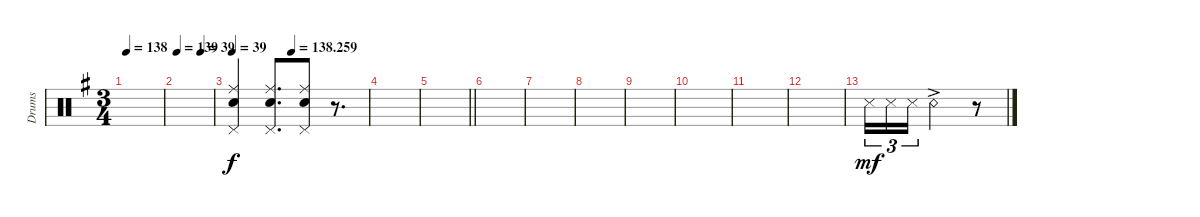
\defaultSystemsLayout 4
\bracketExtendMode groupsimilarinstruments
\otherSystemsTrackNameOrientation horizontal
\track ("Drumkit" "Drums") {instrument percussion}
\staff {score}
\articulation defaults
\ts (3 4)
\scale
0.122758
\tempo 138
\accidentals auto
\clef neutral
\ottava regular
\simile none
\ks eminor
|
\scale
0.668323
\tempo 139
\tempo (39 0.6625)
|
\beaming (8 2 4)
\scale
0.386035
\tempo 39
\tempo (138.259 0.4375)
("Pedal Hi-Hat (hit)"{acc forcenatural} "Ride (middle)"{acc forcenatural} "Snare (hit) 2"{acc forcenatural}).4{beam Up} ("Pedal Hi-Hat (hit)"{acc forcenatural} "Ride (middle)"{acc forcenatural} "Snare (hit) 2"{acc forcenatural}).8{d beam Up} ("Pedal Hi-Hat (hit)"{acc forcenatural} "Ride (middle)"{acc forcenatural} "Snare (hit) 2"{acc forcenatural}).8{beam Up} r.8{d beam Up} |
\scale
0.109489 |
\scale
0.099686
\barLineRight lightlight
|
\scale
0.286455 |
\scale
0.199693 |
\scale
0.106146 |
\scale
0.262806 |
\scale
0.0986555 |
\scale
0.119951 |
\scale
0.128677 |
\scale
0.259313 "Snare (side stick) 3"{acc forcenatural}.16{tu (3 2) dy mf beam Down} "Snare (side stick) 3"{acc forcenatural}.16{tu (3 2) beam Down} "Snare (side stick) 3"{acc forcenatural}.16{tu (3 2) beam Down} "Snare (rim shot)"{ac acc forcenatural}.2{beam Down} r.8{beam Down} |
\scale
0.241081 |
\scale
0.250116 |
\scale
0.207337
